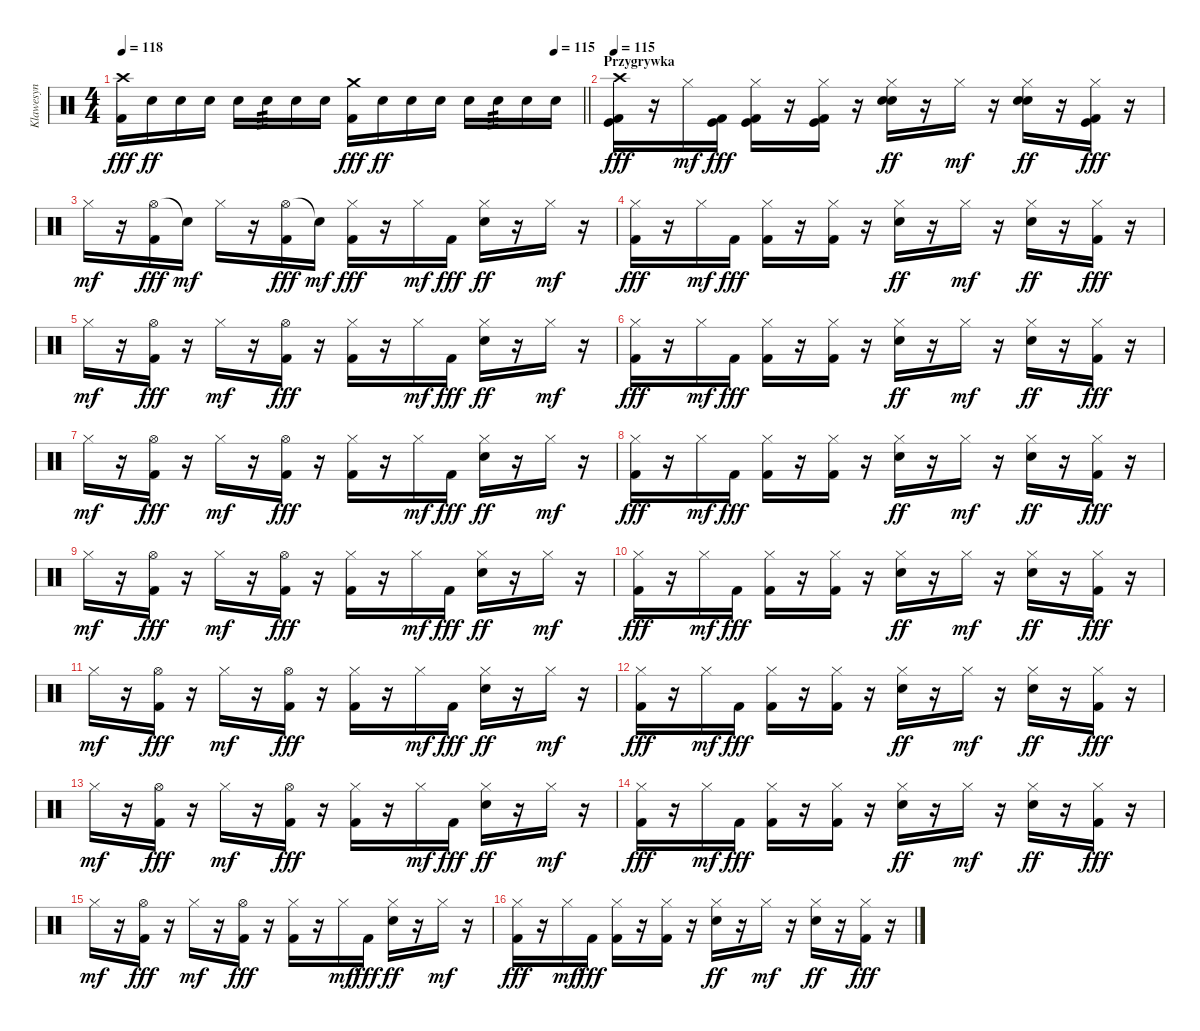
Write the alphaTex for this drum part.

\track ("Klawesyn" "Klawesyn") {instrument percussion}
\staff {score}
\articulation defaults
\ts (4 4)
\tempo 118
\tempo (115 0.9375)
\clef neutral
\barLineRight lightlight
\ks c
("Crash high (hit)" "Kick (hit) 2").16{dy fff} "Electric Snare (hit)".16{dy ff} "Electric Snare (hit)".16 "Electric Snare (hit)".16 "Electric Snare (hit)".16 "Electric Snare (hit)".16{tp 3} "Electric Snare (hit)".16 "Electric Snare (hit)".16 ("Crash medium (hit)" "Kick (hit) 2").16{dy fff} "Electric Snare (hit)".16{dy ff} "Electric Snare (hit)".16 "Electric Snare (hit)".16 "Electric Snare (hit)".16 "Electric Snare (hit)".16{tp 3} "Electric Snare (hit)".16 "Electric Snare (hit)".16 |
\section ("" "Przygrywka")
\tempo 115
("Crash high (hit)" "Kick (hit)" "Kick (hit) 2").16{dy fff} r.16 "Hi-Hat (closed)".16{dy mf} ("Kick (hit)" "Kick (hit) 2").16{dy fff} ("Hi-Hat (closed)" "Kick (hit)" "Kick (hit) 2").16 r.16 ("Hi-Hat (closed)" "Kick (hit)" "Kick (hit) 2").16 r.16 ("Hi-Hat (closed)" "Electric Snare (hit)" "Snare (hit) 2").16{dy ff} r.16 "Hi-Hat (closed)".16{dy mf} r.16 ("Hi-Hat (closed)" "Electric Snare (hit)" "Snare (hit) 2").16{dy ff} r.16 ("Hi-Hat (closed)" "Kick (hit)" "Kick (hit) 2").16{dy fff} r.16 |
"Hi-Hat (closed)".16{dy mf} r.16 ("Hi-Hat (open)" "Kick (hit) 2").16{dy fff} "Snare (hit)"{t}.16{dy mf} "Hi-Hat (closed)".16 r.16 ("Hi-Hat (open)" "Kick (hit) 2").16{dy fff} "Snare (hit)"{t}.16{dy mf} ("Hi-Hat (closed)" "Kick (hit) 2").16{dy fff} r.16 "Hi-Hat (closed)".16{dy mf} "Kick (hit) 2".16{dy fff} ("Hi-Hat (closed)" "Electric Snare (hit)").16{dy ff} r.16 "Hi-Hat (closed)".16{dy mf} r.16 |
("Hi-Hat (closed)" "Kick (hit) 2").16{dy fff} r.16 "Hi-Hat (closed)".16{dy mf} "Kick (hit) 2".16{dy fff} ("Hi-Hat (closed)" "Kick (hit) 2").16 r.16 ("Hi-Hat (closed)" "Kick (hit) 2").16 r.16 ("Hi-Hat (closed)" "Electric Snare (hit)").16{dy ff} r.16 "Hi-Hat (closed)".16{dy mf} r.16 ("Hi-Hat (closed)" "Electric Snare (hit)").16{dy ff} r.16 ("Hi-Hat (closed)" "Kick (hit) 2").16{dy fff} r.16 |
"Hi-Hat (closed)".16{dy mf} r.16 ("Hi-Hat (open)" "Kick (hit) 2").16{dy fff} r.16 "Hi-Hat (closed)".16{dy mf} r.16 ("Hi-Hat (open)" "Kick (hit) 2").16{dy fff} r.16 ("Hi-Hat (closed)" "Kick (hit) 2").16 r.16 "Hi-Hat (closed)".16{dy mf} "Kick (hit) 2".16{dy fff} ("Hi-Hat (closed)" "Electric Snare (hit)").16{dy ff} r.16 "Hi-Hat (closed)".16{dy mf} r.16 |
("Hi-Hat (closed)" "Kick (hit) 2").16{dy fff} r.16 "Hi-Hat (closed)".16{dy mf} "Kick (hit) 2".16{dy fff} ("Hi-Hat (closed)" "Kick (hit) 2").16 r.16 ("Hi-Hat (closed)" "Kick (hit) 2").16 r.16 ("Hi-Hat (closed)" "Electric Snare (hit)").16{dy ff} r.16 "Hi-Hat (closed)".16{dy mf} r.16 ("Hi-Hat (closed)" "Electric Snare (hit)").16{dy ff} r.16 ("Hi-Hat (closed)" "Kick (hit) 2").16{dy fff} r.16 |
"Hi-Hat (closed)".16{dy mf} r.16 ("Hi-Hat (open)" "Kick (hit) 2").16{dy fff} r.16 "Hi-Hat (closed)".16{dy mf} r.16 ("Hi-Hat (open)" "Kick (hit) 2").16{dy fff} r.16 ("Hi-Hat (closed)" "Kick (hit) 2").16 r.16 "Hi-Hat (closed)".16{dy mf} "Kick (hit) 2".16{dy fff} ("Hi-Hat (closed)" "Electric Snare (hit)").16{dy ff} r.16 "Hi-Hat (closed)".16{dy mf} r.16 |
("Hi-Hat (closed)" "Kick (hit) 2").16{dy fff} r.16 "Hi-Hat (closed)".16{dy mf} "Kick (hit) 2".16{dy fff} ("Hi-Hat (closed)" "Kick (hit) 2").16 r.16 ("Hi-Hat (closed)" "Kick (hit) 2").16 r.16 ("Hi-Hat (closed)" "Electric Snare (hit)").16{dy ff} r.16 "Hi-Hat (closed)".16{dy mf} r.16 ("Hi-Hat (closed)" "Electric Snare (hit)").16{dy ff} r.16 ("Hi-Hat (closed)" "Kick (hit) 2").16{dy fff} r.16 |
"Hi-Hat (closed)".16{dy mf} r.16 ("Hi-Hat (open)" "Kick (hit) 2").16{dy fff} r.16 "Hi-Hat (closed)".16{dy mf} r.16 ("Hi-Hat (open)" "Kick (hit) 2").16{dy fff} r.16 ("Hi-Hat (closed)" "Kick (hit) 2").16 r.16 "Hi-Hat (closed)".16{dy mf} "Kick (hit) 2".16{dy fff} ("Hi-Hat (closed)" "Electric Snare (hit)").16{dy ff} r.16 "Hi-Hat (closed)".16{dy mf} r.16 |
("Hi-Hat (closed)" "Kick (hit) 2").16{dy fff} r.16 "Hi-Hat (closed)".16{dy mf} "Kick (hit) 2".16{dy fff} ("Hi-Hat (closed)" "Kick (hit) 2").16 r.16 ("Hi-Hat (closed)" "Kick (hit) 2").16 r.16 ("Hi-Hat (closed)" "Electric Snare (hit)").16{dy ff} r.16 "Hi-Hat (closed)".16{dy mf} r.16 ("Hi-Hat (closed)" "Electric Snare (hit)").16{dy ff} r.16 ("Hi-Hat (closed)" "Kick (hit) 2").16{dy fff} r.16 |
"Hi-Hat (closed)".16{dy mf} r.16 ("Hi-Hat (open)" "Kick (hit) 2").16{dy fff} r.16 "Hi-Hat (closed)".16{dy mf} r.16 ("Hi-Hat (open)" "Kick (hit) 2").16{dy fff} r.16 ("Hi-Hat (closed)" "Kick (hit) 2").16 r.16 "Hi-Hat (closed)".16{dy mf} "Kick (hit) 2".16{dy fff} ("Hi-Hat (closed)" "Electric Snare (hit)").16{dy ff} r.16 "Hi-Hat (closed)".16{dy mf} r.16 |
("Hi-Hat (closed)" "Kick (hit) 2").16{dy fff} r.16 "Hi-Hat (closed)".16{dy mf} "Kick (hit) 2".16{dy fff} ("Hi-Hat (closed)" "Kick (hit) 2").16 r.16 ("Hi-Hat (closed)" "Kick (hit) 2").16 r.16 ("Hi-Hat (closed)" "Electric Snare (hit)").16{dy ff} r.16 "Hi-Hat (closed)".16{dy mf} r.16 ("Hi-Hat (closed)" "Electric Snare (hit)").16{dy ff} r.16 ("Hi-Hat (closed)" "Kick (hit) 2").16{dy fff} r.16 |
"Hi-Hat (closed)".16{dy mf} r.16 ("Hi-Hat (open)" "Kick (hit) 2").16{dy fff} r.16 "Hi-Hat (closed)".16{dy mf} r.16 ("Hi-Hat (open)" "Kick (hit) 2").16{dy fff} r.16 ("Hi-Hat (closed)" "Kick (hit) 2").16 r.16 "Hi-Hat (closed)".16{dy mf} "Kick (hit) 2".16{dy fff} ("Hi-Hat (closed)" "Electric Snare (hit)").16{dy ff} r.16 "Hi-Hat (closed)".16{dy mf} r.16 |
("Hi-Hat (closed)" "Kick (hit) 2").16{dy fff} r.16 "Hi-Hat (closed)".16{dy mf} "Kick (hit) 2".16{dy fff} ("Hi-Hat (closed)" "Kick (hit) 2").16 r.16 ("Hi-Hat (closed)" "Kick (hit) 2").16 r.16 ("Hi-Hat (closed)" "Electric Snare (hit)").16{dy ff} r.16 "Hi-Hat (closed)".16{dy mf} r.16 ("Hi-Hat (closed)" "Electric Snare (hit)").16{dy ff} r.16 ("Hi-Hat (closed)" "Kick (hit) 2").16{dy fff} r.16 |
"Hi-Hat (closed)".16{dy mf} r.16 ("Hi-Hat (open)" "Kick (hit) 2").16{dy fff} r.16 "Hi-Hat (closed)".16{dy mf} r.16 ("Hi-Hat (open)" "Kick (hit) 2").16{dy fff} r.16 ("Hi-Hat (closed)" "Kick (hit) 2").16 r.16 "Hi-Hat (closed)".16{dy mf} "Kick (hit) 2".16{dy fff} ("Hi-Hat (closed)" "Electric Snare (hit)").16{dy ff} r.16 "Hi-Hat (closed)".16{dy mf} r.16 |
("Hi-Hat (closed)" "Kick (hit) 2").16{dy fff} r.16 "Hi-Hat (closed)".16{dy mf} "Kick (hit) 2".16{dy fff} ("Hi-Hat (closed)" "Kick (hit) 2").16 r.16 ("Hi-Hat (closed)" "Kick (hit) 2").16 r.16 ("Hi-Hat (closed)" "Electric Snare (hit)").16{dy ff} r.16 "Hi-Hat (closed)".16{dy mf} r.16 ("Hi-Hat (closed)" "Electric Snare (hit)").16{dy ff} r.16 ("Hi-Hat (closed)" "Kick (hit) 2").16{dy fff} r.16
